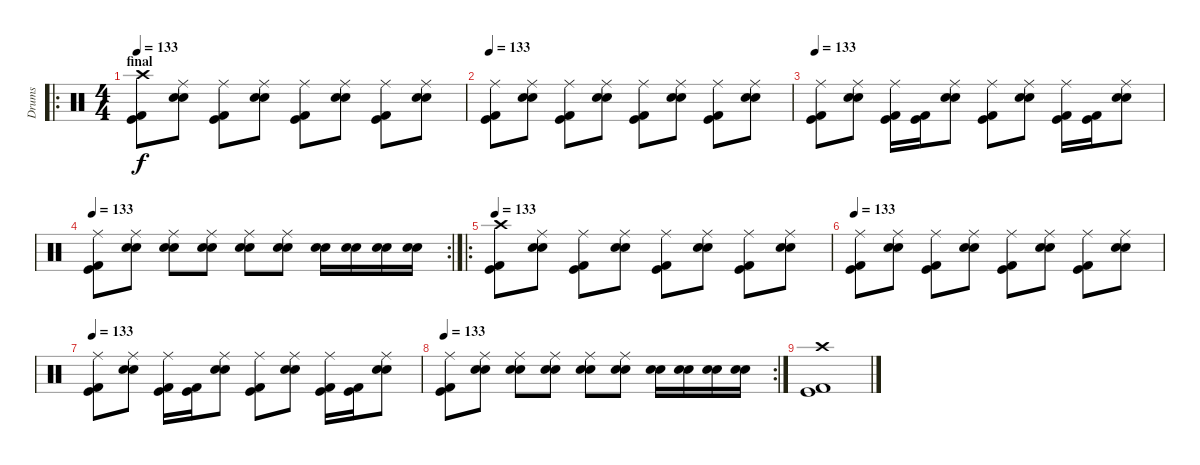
\track ("Drums" "Drums") {instrument percussion}
\staff {score}
\articulation defaults
\ro
\ts (4 4)
\section ("" "final")
\tempo 133
\clef neutral
\ks c
("Crash high (hit)" "Kick (hit) 2" "Kick (hit)").8{dy f} ("Ride (middle)" "Snare (hit) 2" "Snare (hit) 2").8 ("Ride (middle)" "Kick (hit) 2" "Kick (hit)").8 ("Ride (middle)" "Snare (hit) 2" "Snare (hit) 2").8 ("Ride (middle)" "Kick (hit) 2" "Kick (hit)").8 ("Ride (middle)" "Snare (hit) 2" "Snare (hit) 2").8 ("Ride (middle)" "Kick (hit) 2" "Kick (hit)").8 ("Ride (middle)" "Snare (hit) 2" "Snare (hit) 2").8 |
\tempo 133
("Ride (middle)" "Kick (hit) 2" "Kick (hit)").8 ("Ride (middle)" "Snare (hit) 2" "Snare (hit) 2").8 ("Ride (middle)" "Kick (hit) 2" "Kick (hit)").8 ("Ride (middle)" "Snare (hit) 2" "Snare (hit) 2").8 ("Ride (middle)" "Kick (hit) 2" "Kick (hit)").8 ("Ride (middle)" "Snare (hit) 2" "Snare (hit) 2").8 ("Ride (middle)" "Kick (hit) 2" "Kick (hit)").8 ("Ride (middle)" "Snare (hit) 2" "Snare (hit) 2").8 |
\tempo 133
("Ride (middle)" "Kick (hit) 2" "Kick (hit)").8 ("Ride (middle)" "Snare (hit) 2" "Snare (hit) 2").8 ("Ride (middle)" "Kick (hit) 2" "Kick (hit)").16 ("Kick (hit) 2" "Kick (hit)").16 ("Ride (middle)" "Snare (hit) 2" "Snare (hit) 2").8 ("Ride (middle)" "Kick (hit) 2" "Kick (hit)").8 ("Ride (middle)" "Snare (hit) 2" "Snare (hit) 2").8 ("Ride (middle)" "Kick (hit) 2" "Kick (hit)").16 ("Kick (hit)" "Kick (hit) 2").16 ("Ride (middle)" "Snare (hit) 2" "Snare (hit) 2").8 |
\rc 2
\tempo 133
("Ride (middle)" "Kick (hit) 2" "Kick (hit)").8 ("Ride (middle)" "Snare (hit) 2" "Snare (hit) 2").8 ("Ride (middle)" "Snare (hit) 2" "Snare (hit) 2").8 ("Ride (middle)" "Snare (hit) 2" "Snare (hit) 2").8 ("Ride (middle)" "Snare (hit) 2" "Snare (hit) 2").8 ("Ride (middle)" "Snare (hit) 2" "Snare (hit) 2").8 ("Snare (hit) 2" "Snare (hit) 2").16 ("Snare (hit) 2" "Snare (hit) 2").16 ("Snare (hit) 2" "Snare (hit) 2").16 ("Snare (hit) 2" "Snare (hit) 2").16 |
\ro
\tempo 133
("Crash high (hit)" "Kick (hit) 2" "Kick (hit)").8 ("Ride (middle)" "Snare (hit) 2" "Snare (hit) 2").8 ("Ride (middle)" "Kick (hit) 2" "Kick (hit)").8 ("Ride (middle)" "Snare (hit) 2" "Snare (hit) 2").8 ("Ride (middle)" "Kick (hit) 2" "Kick (hit)").8 ("Ride (middle)" "Snare (hit) 2" "Snare (hit) 2").8 ("Ride (middle)" "Kick (hit) 2" "Kick (hit)").8 ("Ride (middle)" "Snare (hit) 2" "Snare (hit) 2").8 |
\tempo 133
("Ride (middle)" "Kick (hit) 2" "Kick (hit)").8 ("Ride (middle)" "Snare (hit) 2" "Snare (hit) 2").8 ("Ride (middle)" "Kick (hit) 2" "Kick (hit)").8 ("Ride (middle)" "Snare (hit) 2" "Snare (hit) 2").8 ("Ride (middle)" "Kick (hit) 2" "Kick (hit)").8 ("Ride (middle)" "Snare (hit) 2" "Snare (hit) 2").8 ("Ride (middle)" "Kick (hit) 2" "Kick (hit)").8 ("Ride (middle)" "Snare (hit) 2" "Snare (hit) 2").8 |
\tempo 133
("Ride (middle)" "Kick (hit) 2" "Kick (hit)").8 ("Ride (middle)" "Snare (hit) 2" "Snare (hit) 2").8 ("Ride (middle)" "Kick (hit) 2" "Kick (hit)").16 ("Kick (hit) 2" "Kick (hit)").16 ("Ride (middle)" "Snare (hit) 2" "Snare (hit) 2").8 ("Ride (middle)" "Kick (hit) 2" "Kick (hit)").8 ("Ride (middle)" "Snare (hit) 2" "Snare (hit) 2").8 ("Ride (middle)" "Kick (hit) 2" "Kick (hit)").16 ("Kick (hit)" "Kick (hit) 2").16 ("Ride (middle)" "Snare (hit) 2" "Snare (hit) 2").8 |
\rc 2
\tempo 133
("Ride (middle)" "Kick (hit) 2" "Kick (hit)").8 ("Ride (middle)" "Snare (hit) 2" "Snare (hit) 2").8 ("Ride (middle)" "Snare (hit) 2" "Snare (hit) 2").8 ("Ride (middle)" "Snare (hit) 2" "Snare (hit) 2").8 ("Ride (middle)" "Snare (hit) 2" "Snare (hit) 2").8 ("Ride (middle)" "Snare (hit) 2" "Snare (hit) 2").8 ("Snare (hit) 2" "Snare (hit) 2").16 ("Snare (hit) 2" "Snare (hit) 2").16 ("Snare (hit) 2" "Snare (hit) 2").16 ("Snare (hit) 2" "Snare (hit) 2").16 |
("Crash high (hit)" "Kick (hit) 2" "Kick (hit)").1
